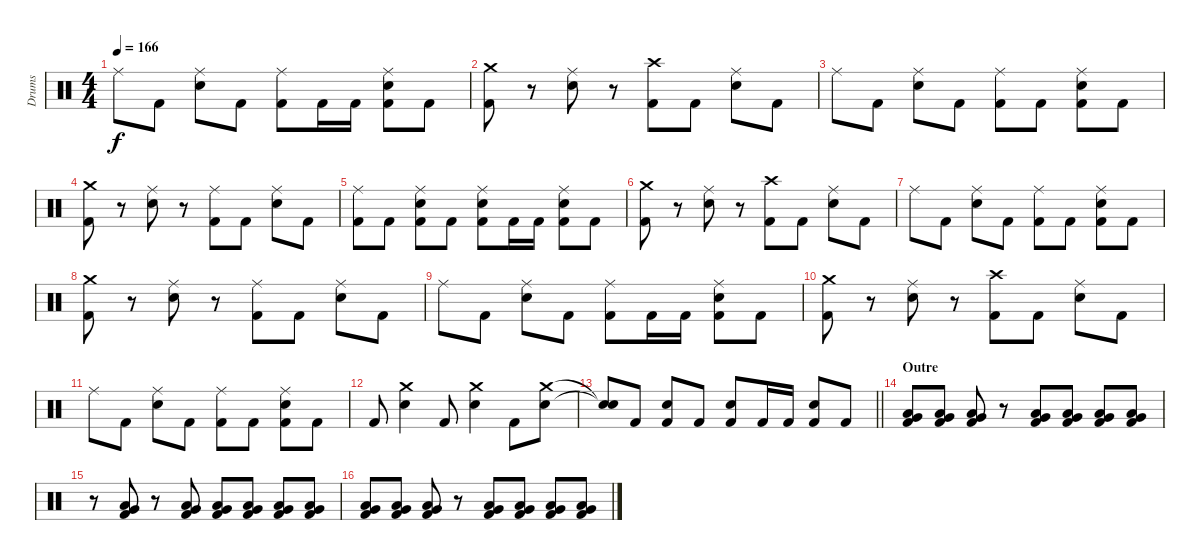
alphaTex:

\track ("Drums" "Drums") {instrument percussion}
\staff {score}
\articulation defaults
\ts (4 4)
\tempo 166
\clef neutral
\ks c "Ride (middle)".8{dy f} "Kick (hit) 2".8
("Ride (middle)" "Electric Snare (hit)").8 "Kick (hit) 2".8 ("Ride (middle)" "Kick (hit) 2").8 "Kick (hit) 2".16 "Kick (hit) 2".16 ("Ride (middle)" "Electric Snare (hit)" "Kick (hit) 2").8 "Kick (hit) 2".8 |
("Crash medium (hit)" "Kick (hit) 2").8 r.8 ("Ride (middle)" "Electric Snare (hit)").8 r.8 ("Crash high (hit)" "Kick (hit) 2").8 "Kick (hit) 2".8 ("Ride (middle)" "Electric Snare (hit)").8 "Kick (hit) 2".8 |
"Ride (middle)".8 "Kick (hit) 2".8 ("Ride (middle)" "Electric Snare (hit)").8 "Kick (hit) 2".8 ("Ride (middle)" "Kick (hit) 2").8 "Kick (hit) 2".8 ("Ride (middle)" "Electric Snare (hit)" "Kick (hit) 2").8 "Kick (hit) 2".8 |
("Crash medium (hit)" "Kick (hit) 2").8 r.8 ("Ride (middle)" "Electric Snare (hit)").8 r.8 ("Ride (middle)" "Kick (hit) 2").8 "Kick (hit) 2".8 ("Ride (middle)" "Electric Snare (hit)").8 "Kick (hit) 2".8 |
("Ride (middle)" "Kick (hit) 2").8 "Kick (hit) 2".8 ("Ride (middle)" "Electric Snare (hit)" "Kick (hit) 2").8 "Kick (hit) 2".8 ("Ride (middle)" "Electric Snare (hit)" "Kick (hit) 2").8 "Kick (hit) 2".16 "Kick (hit) 2".16 ("Ride (middle)" "Electric Snare (hit)" "Kick (hit) 2").8 "Kick (hit) 2".8 |
("Crash medium (hit)" "Kick (hit) 2").8 r.8 ("Ride (middle)" "Electric Snare (hit)").8 r.8 ("Crash high (hit)" "Kick (hit) 2").8 "Kick (hit) 2".8 ("Ride (middle)" "Electric Snare (hit)").8 "Kick (hit) 2".8 |
"Ride (middle)".8 "Kick (hit) 2".8 ("Ride (middle)" "Electric Snare (hit)").8 "Kick (hit) 2".8 ("Ride (middle)" "Kick (hit) 2").8 "Kick (hit) 2".8 ("Ride (middle)" "Electric Snare (hit)" "Kick (hit) 2").8 "Kick (hit) 2".8 |
("Crash medium (hit)" "Kick (hit) 2").8 r.8 ("Ride (middle)" "Electric Snare (hit)").8 r.8 ("Ride (middle)" "Kick (hit) 2").8 "Kick (hit) 2".8 ("Ride (middle)" "Electric Snare (hit)").8 "Kick (hit) 2".8 |
"Ride (middle)".8 "Kick (hit) 2".8 ("Ride (middle)" "Electric Snare (hit)").8 "Kick (hit) 2".8 ("Ride (middle)" "Kick (hit) 2").8 "Kick (hit) 2".16 "Kick (hit) 2".16 ("Ride (middle)" "Electric Snare (hit)" "Kick (hit) 2").8 "Kick (hit) 2".8 |
("Crash medium (hit)" "Kick (hit) 2").8 r.8 ("Ride (middle)" "Electric Snare (hit)").8 r.8 ("Crash high (hit)" "Kick (hit) 2").8 "Kick (hit) 2".8 ("Ride (middle)" "Electric Snare (hit)").8 "Kick (hit) 2".8 |
"Ride (middle)".8 "Kick (hit) 2".8 ("Ride (middle)" "Electric Snare (hit)").8 "Kick (hit) 2".8 ("Ride (middle)" "Kick (hit) 2").8 "Kick (hit) 2".8 ("Ride (middle)" "Electric Snare (hit)" "Kick (hit) 2").8 "Kick (hit) 2".8 |
"Kick (hit) 2".8 ("Crash medium (hit)" "Electric Snare (hit)").4 "Kick (hit) 2".8 ("Crash medium (hit)" "Electric Snare (hit)").4 "Kick (hit) 2".8 ("Crash medium (hit)" "Electric Snare (hit)").8 |
\barLineRight lightlight
("Snare (hit)"{t} "Snare (hit)"{t}).8 "Kick (hit) 2".8 ("Electric Snare (hit)" "Kick (hit) 2").8 "Kick (hit) 2".8 ("Electric Snare (hit)" "Kick (hit) 2").8 "Kick (hit) 2".16 "Kick (hit) 2".16 ("Electric Snare (hit)" "Kick (hit) 2").8 "Kick (hit) 2".8 |
\section ("" "Outre")
("Very Low Tom (hit)" "Low Floor Tom (hit)" "Kick (hit) 2").8 ("Very Low Tom (hit)" "Low Floor Tom (hit)" "Kick (hit) 2").8 ("Very Low Tom (hit)" "Low Floor Tom (hit)" "Kick (hit) 2").8 r.8 ("Very Low Tom (hit)" "Low Floor Tom (hit)" "Kick (hit) 2").8 ("Very Low Tom (hit)" "Low Floor Tom (hit)" "Kick (hit) 2").8 ("Very Low Tom (hit)" "Low Floor Tom (hit)" "Kick (hit) 2").8 ("Very Low Tom (hit)" "Low Floor Tom (hit)" "Kick (hit) 2").8 |
r.8 ("Very Low Tom (hit)" "Low Floor Tom (hit)" "Kick (hit) 2").8 r.8 ("Very Low Tom (hit)" "Low Floor Tom (hit)" "Kick (hit) 2").8 ("Very Low Tom (hit)" "Low Floor Tom (hit)" "Kick (hit) 2").8 ("Very Low Tom (hit)" "Low Floor Tom (hit)" "Kick (hit) 2").8 ("Very Low Tom (hit)" "Low Floor Tom (hit)" "Kick (hit) 2").8 ("Very Low Tom (hit)" "Low Floor Tom (hit)" "Kick (hit) 2").8 |
("Very Low Tom (hit)" "Low Floor Tom (hit)" "Kick (hit) 2").8 ("Very Low Tom (hit)" "Low Floor Tom (hit)" "Kick (hit) 2").8 ("Very Low Tom (hit)" "Low Floor Tom (hit)" "Kick (hit) 2").8 r.8 ("Very Low Tom (hit)" "Low Floor Tom (hit)" "Kick (hit) 2").8 ("Very Low Tom (hit)" "Low Floor Tom (hit)" "Kick (hit) 2").8 ("Very Low Tom (hit)" "Low Floor Tom (hit)" "Kick (hit) 2").8 ("Very Low Tom (hit)" "Low Floor Tom (hit)" "Kick (hit) 2").8
